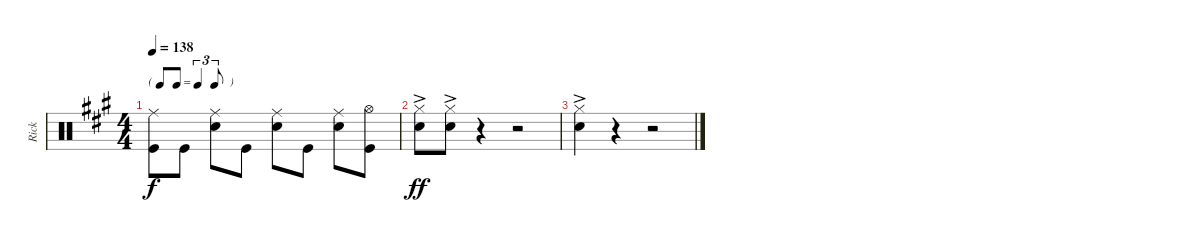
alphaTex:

\track ("Rick" "Rick") {instrument percussion}
\staff {score}
\articulation defaults
\ts (4 4)
\tf triplet8th
\tempo 138
\clef neutral
\ks a
("Ride (middle)" "Kick (hit)").8{dy f} "Kick (hit)".8 ("Ride (middle)" "Snare (hit) 2").8 "Kick (hit)".8 ("Ride (middle)" "Snare (hit) 2").8 "Kick (hit)".8 ("Ride (middle)" "Snare (hit) 2").8 ("Hi-Hat (open)" "Kick (hit)").8 |
("Hi-Hat (closed)"{ac} "Snare (hit) 2").8{dy ff} ("Hi-Hat (closed)" "Snare (hit) 2"{ac}).8 r.4 r.2 |
("Hi-Hat (closed)" "Snare (hit) 2"{ac}).4 r.4 r.2
